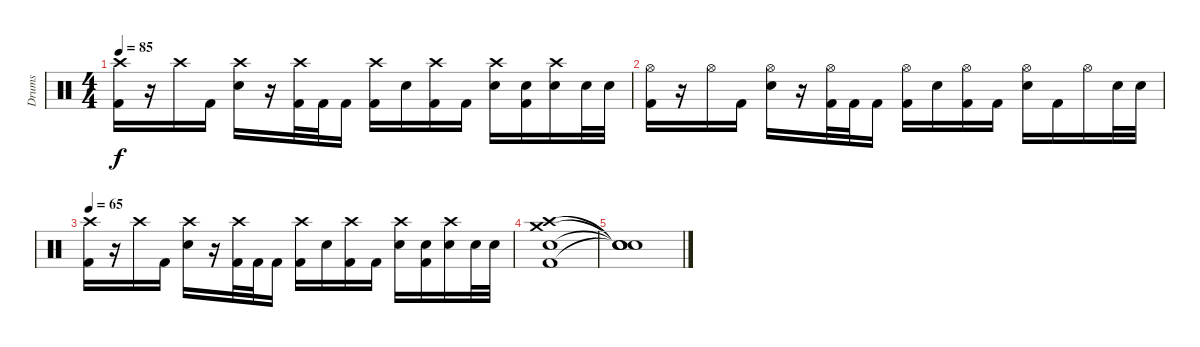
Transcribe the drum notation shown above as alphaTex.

\track ("Drums" "Drums") {instrument percussion}
\staff {score}
\articulation defaults
\ts (4 4)
\tempo 85
\clef neutral
\ks c
("Crash high (hit)" "Kick (hit) 2").16{dy f} r.16 "Crash high (hit)".16 "Kick (hit) 2".16 ("Crash high (hit)" "Snare (hit) 2").16 r.16 ("Crash high (hit)" "Kick (hit) 2").32 "Kick (hit) 2".32 "Kick (hit) 2".16 ("Crash high (hit)" "Kick (hit) 2").16 "Snare (hit) 2".16 ("Crash high (hit)" "Kick (hit) 2").16 "Kick (hit) 2".16 ("Crash high (hit)" "Snare (hit) 2").16 ("Snare (hit) 2" "Kick (hit) 2").16 ("Crash high (hit)" "Snare (hit) 2").16 "Snare (hit) 2".32 "Snare (hit) 2".32 |
("Hi-Hat (open)" "Kick (hit) 2").16 r.16 "Hi-Hat (open)".16 "Kick (hit) 2".16 ("Hi-Hat (open)" "Snare (hit) 2").16 r.16 ("Hi-Hat (open)" "Kick (hit) 2").32 "Kick (hit) 2".32 "Kick (hit) 2".16 ("Hi-Hat (open)" "Kick (hit) 2").16 "Snare (hit) 2".16 ("Hi-Hat (open)" "Kick (hit) 2").16 "Kick (hit) 2".16 ("Hi-Hat (open)" "Snare (hit) 2").16 "Kick (hit) 2".16 "Hi-Hat (open)".16 "Snare (hit) 2".32 "Snare (hit) 2".32 |
\tempo 65
("Crash high (hit)" "Kick (hit) 2").16 r.16 "Crash high (hit)".16 "Kick (hit) 2".16 ("Crash high (hit)" "Snare (hit) 2").16 r.16 ("Crash high (hit)" "Kick (hit) 2").32 "Kick (hit) 2".32 "Kick (hit) 2".16 ("Crash high (hit)" "Kick (hit) 2").16 "Snare (hit) 2".16 ("Crash high (hit)" "Kick (hit) 2").16 "Kick (hit) 2".16 ("Crash high (hit)" "Snare (hit) 2").16 ("Snare (hit) 2" "Kick (hit) 2").16 ("Crash high (hit)" "Snare (hit) 2").16 "Snare (hit) 2".32 "Snare (hit) 2".32 |
("Snare (hit) 2" "Crash medium (hit)" "Crash high (hit)" "Kick (hit) 2").1 |
("Snare (hit)"{t} "Snare (hit)"{t} "Snare (hit)"{t} "Snare (hit)"{t}).1
